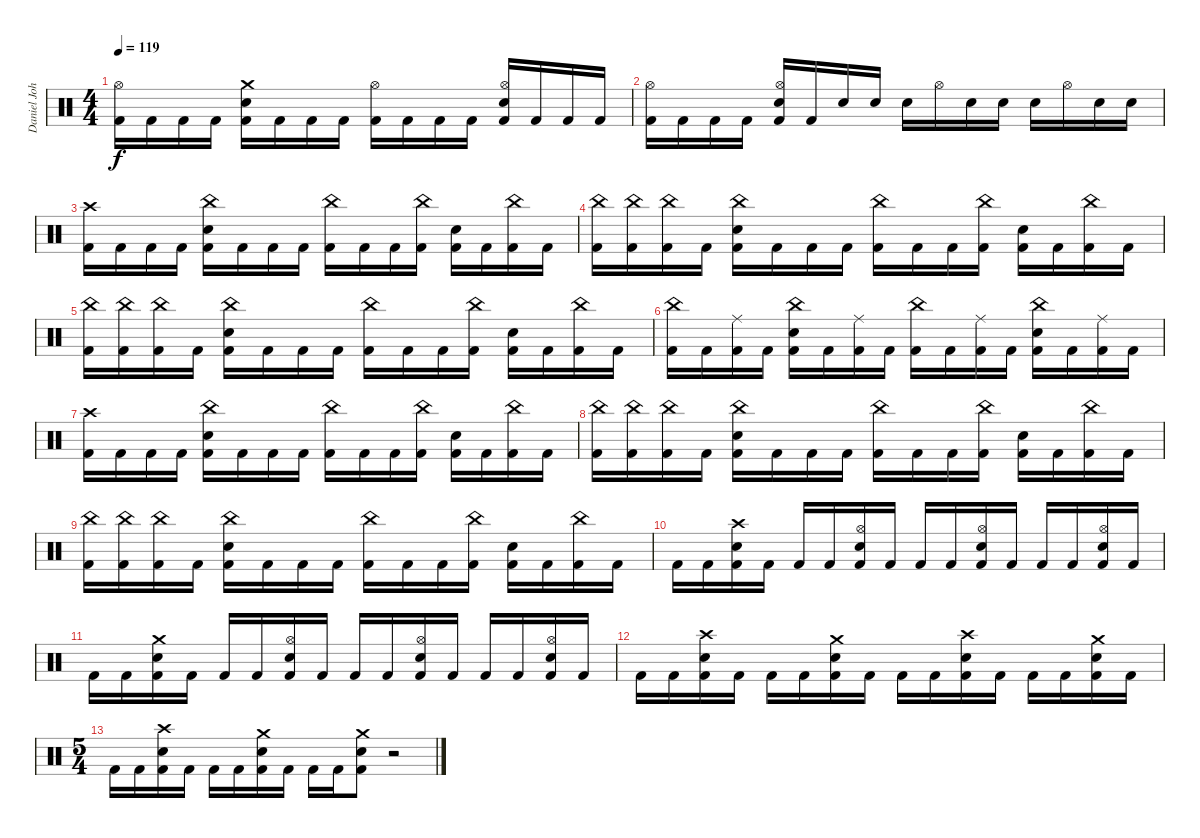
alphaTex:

\track ("Daniel John Erlandson (Drums)" "Daniel Joh") {instrument percussion}
\staff {score}
\articulation defaults
\ts (4 4)
\tempo 119
\clef neutral
\ks c
("Kick (hit) 2" "Hi-Hat (open)").16{dy f} "Kick (hit) 2".16 "Kick (hit) 2".16 "Kick (hit) 2".16 ("Kick (hit) 2" "Snare (hit) 2" "Crash medium (hit)").16 "Kick (hit) 2".16 "Kick (hit) 2".16 "Kick (hit) 2".16 ("Kick (hit) 2" "Hi-Hat (open)").16 "Kick (hit) 2".16 "Kick (hit) 2".16 "Kick (hit) 2".16 ("Kick (hit) 2" "Snare (hit) 2" "Hi-Hat (open)").16 "Kick (hit) 2".16 "Kick (hit) 2".16 "Kick (hit) 2".16 |
("Kick (hit) 2" "Hi-Hat (open)").16 "Kick (hit) 2".16 "Kick (hit) 2".16 "Kick (hit) 2".16 ("Kick (hit) 2" "Snare (hit) 2" "Hi-Hat (open)").16 "Kick (hit) 2".16 "Snare (hit) 2".16 "Snare (hit) 2".16 "Snare (hit) 2".16 "Hi-Hat (open)".16 "Snare (hit) 2".16 "Snare (hit) 2".16 "Snare (hit) 2".16 "Hi-Hat (open)".16 "Snare (hit) 2".16 "Snare (hit) 2".16 |
("Kick (hit) 2" "Crash high (hit)").16 "Kick (hit) 2".16 "Kick (hit) 2".16 "Kick (hit) 2".16 ("Kick (hit) 2" "Snare (hit) 2" "China (hit)").16 "Kick (hit) 2".16 "Kick (hit) 2".16 "Kick (hit) 2".16 ("Kick (hit) 2" "China (hit)").16 "Kick (hit) 2".16 "Kick (hit) 2".16 ("Kick (hit) 2" "China (hit)").16 ("Kick (hit) 2" "Snare (hit) 2").16 "Kick (hit) 2".16 ("Kick (hit) 2" "China (hit)").16 "Kick (hit) 2".16 |
("Kick (hit) 2" "China (hit)").16 ("Kick (hit) 2" "China (hit)").16 ("Kick (hit) 2" "China (hit)").16 "Kick (hit) 2".16 ("Kick (hit) 2" "Snare (hit) 2" "China (hit)").16 "Kick (hit) 2".16 "Kick (hit) 2".16 "Kick (hit) 2".16 ("Kick (hit) 2" "China (hit)").16 "Kick (hit) 2".16 "Kick (hit) 2".16 ("Kick (hit) 2" "China (hit)").16 ("Kick (hit) 2" "Snare (hit) 2").16 "Kick (hit) 2".16 ("Kick (hit) 2" "China (hit)").16 "Kick (hit) 2".16 |
("Kick (hit) 2" "China (hit)").16 ("Kick (hit) 2" "China (hit)").16 ("Kick (hit) 2" "China (hit)").16 "Kick (hit) 2".16 ("Kick (hit) 2" "Snare (hit) 2" "China (hit)").16 "Kick (hit) 2".16 "Kick (hit) 2".16 "Kick (hit) 2".16 ("Kick (hit) 2" "China (hit)").16 "Kick (hit) 2".16 "Kick (hit) 2".16 ("Kick (hit) 2" "China (hit)").16 ("Kick (hit) 2" "Snare (hit) 2").16 "Kick (hit) 2".16 ("Kick (hit) 2" "China (hit)").16 "Kick (hit) 2".16 |
("Kick (hit) 2" "China (hit)").16 "Kick (hit) 2".16 ("Kick (hit) 2" "Ride (middle)").16 "Kick (hit) 2".16 ("Kick (hit) 2" "Snare (hit) 2" "China (hit)").16 "Kick (hit) 2".16 ("Kick (hit) 2" "Ride (middle)").16 "Kick (hit) 2".16 ("Kick (hit) 2" "China (hit)").16 "Kick (hit) 2".16 ("Kick (hit) 2" "Ride (middle)").16 "Kick (hit) 2".16 ("Kick (hit) 2" "Snare (hit) 2" "China (hit)").16 "Kick (hit) 2".16 ("Kick (hit) 2" "Ride (middle)").16 "Kick (hit) 2".16 |
("Kick (hit) 2" "Crash high (hit)").16 "Kick (hit) 2".16 "Kick (hit) 2".16 "Kick (hit) 2".16 ("Kick (hit) 2" "Snare (hit) 2" "China (hit)").16 "Kick (hit) 2".16 "Kick (hit) 2".16 "Kick (hit) 2".16 ("Kick (hit) 2" "China (hit)").16 "Kick (hit) 2".16 "Kick (hit) 2".16 ("Kick (hit) 2" "China (hit)").16 ("Kick (hit) 2" "Snare (hit) 2").16 "Kick (hit) 2".16 ("Kick (hit) 2" "China (hit)").16 "Kick (hit) 2".16 |
("Kick (hit) 2" "China (hit)").16 ("Kick (hit) 2" "China (hit)").16 ("Kick (hit) 2" "China (hit)").16 "Kick (hit) 2".16 ("Kick (hit) 2" "Snare (hit) 2" "China (hit)").16 "Kick (hit) 2".16 "Kick (hit) 2".16 "Kick (hit) 2".16 ("Kick (hit) 2" "China (hit)").16 "Kick (hit) 2".16 "Kick (hit) 2".16 ("Kick (hit) 2" "China (hit)").16 ("Kick (hit) 2" "Snare (hit) 2").16 "Kick (hit) 2".16 ("Kick (hit) 2" "China (hit)").16 "Kick (hit) 2".16 |
("Kick (hit) 2" "China (hit)").16 ("Kick (hit) 2" "China (hit)").16 ("Kick (hit) 2" "China (hit)").16 "Kick (hit) 2".16 ("Kick (hit) 2" "Snare (hit) 2" "China (hit)").16 "Kick (hit) 2".16 "Kick (hit) 2".16 "Kick (hit) 2".16 ("Kick (hit) 2" "China (hit)").16 "Kick (hit) 2".16 "Kick (hit) 2".16 ("Kick (hit) 2" "China (hit)").16 ("Kick (hit) 2" "Snare (hit) 2").16 "Kick (hit) 2".16 ("Kick (hit) 2" "China (hit)").16 "Kick (hit) 2".16 |
"Kick (hit) 2".16 "Kick (hit) 2".16 ("Kick (hit) 2" "Snare (hit) 2" "Crash high (hit)").16 "Kick (hit) 2".16 "Kick (hit) 2".16 "Kick (hit) 2".16 ("Kick (hit) 2" "Snare (hit) 2" "Hi-Hat (open)").16 "Kick (hit) 2".16 "Kick (hit) 2".16 "Kick (hit) 2".16 ("Kick (hit) 2" "Snare (hit) 2" "Hi-Hat (open)").16 "Kick (hit) 2".16 "Kick (hit) 2".16 "Kick (hit) 2".16 ("Kick (hit) 2" "Snare (hit) 2" "Hi-Hat (open)").16 "Kick (hit) 2".16 |
"Kick (hit) 2".16 "Kick (hit) 2".16 ("Kick (hit) 2" "Snare (hit) 2" "Crash medium (hit)").16 "Kick (hit) 2".16 "Kick (hit) 2".16 "Kick (hit) 2".16 ("Kick (hit) 2" "Snare (hit) 2" "Hi-Hat (open)").16 "Kick (hit) 2".16 "Kick (hit) 2".16 "Kick (hit) 2".16 ("Kick (hit) 2" "Snare (hit) 2" "Hi-Hat (open)").16 "Kick (hit) 2".16 "Kick (hit) 2".16 "Kick (hit) 2".16 ("Kick (hit) 2" "Snare (hit) 2" "Hi-Hat (open)").16 "Kick (hit) 2".16 |
"Kick (hit) 2".16 "Kick (hit) 2".16 ("Kick (hit) 2" "Snare (hit) 2" "Crash high (hit)").16 "Kick (hit) 2".16 "Kick (hit) 2".16 "Kick (hit) 2".16 ("Kick (hit) 2" "Snare (hit) 2" "Crash medium (hit)").16 "Kick (hit) 2".16 "Kick (hit) 2".16 "Kick (hit) 2".16 ("Kick (hit) 2" "Snare (hit) 2" "Crash high (hit)").16 "Kick (hit) 2".16 "Kick (hit) 2".16 "Kick (hit) 2".16 ("Kick (hit) 2" "Snare (hit) 2" "Crash medium (hit)").16 "Kick (hit) 2".16 |
\ts (5 4)
"Kick (hit) 2".16 "Kick (hit) 2".16 ("Kick (hit) 2" "Snare (hit) 2" "Crash high (hit)").16 "Kick (hit) 2".16 "Kick (hit) 2".16 "Kick (hit) 2".16 ("Kick (hit) 2" "Snare (hit) 2" "Crash medium (hit)").16 "Kick (hit) 2".16 "Kick (hit) 2".16 "Kick (hit) 2".16 ("Kick (hit) 2" "Snare (hit) 2" "Crash medium (hit)").8 r.2
